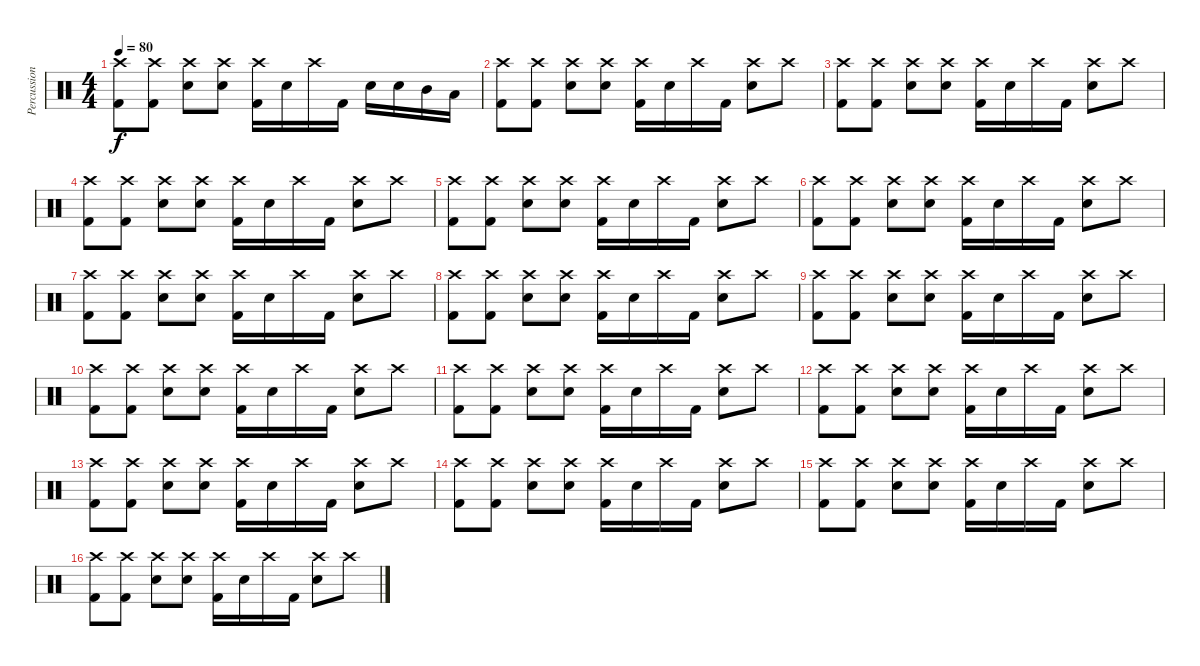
\track ("Percussion" "Percussion") {instrument percussion}
\staff {score}
\articulation defaults
\ts (4 4)
\tempo 80
\clef neutral
\ks c
("Kick (hit) 2" "Crash high (hit)").8{dy f} ("Kick (hit) 2" "Crash high (hit)").8 ("Electric Snare (hit)" "Crash high (hit)").8 ("Electric Snare (hit)" "Crash high (hit)").8 ("Kick (hit) 2" "Crash high (hit)").16 "Electric Snare (hit)".16 "Crash high (hit)".16 "Kick (hit) 2".16 "Electric Snare (hit)".16 "Electric Snare (hit)".16 "Mid Tom (hit)".16 "Low Tom (hit)".16 |
("Kick (hit) 2" "Crash high (hit)").8 ("Kick (hit) 2" "Crash high (hit)").8 ("Electric Snare (hit)" "Crash high (hit)").8 ("Electric Snare (hit)" "Crash high (hit)").8 ("Kick (hit) 2" "Crash high (hit)").16 "Electric Snare (hit)".16 "Crash high (hit)".16 "Kick (hit) 2".16 ("Electric Snare (hit)" "Crash high (hit)").8 "Crash high (hit)".8 |
("Kick (hit) 2" "Crash high (hit)").8 ("Kick (hit) 2" "Crash high (hit)").8 ("Electric Snare (hit)" "Crash high (hit)").8 ("Electric Snare (hit)" "Crash high (hit)").8 ("Kick (hit) 2" "Crash high (hit)").16 "Electric Snare (hit)".16 "Crash high (hit)".16 "Kick (hit) 2".16 ("Electric Snare (hit)" "Crash high (hit)").8 "Crash high (hit)".8 |
("Kick (hit) 2" "Crash high (hit)").8 ("Kick (hit) 2" "Crash high (hit)").8 ("Electric Snare (hit)" "Crash high (hit)").8 ("Electric Snare (hit)" "Crash high (hit)").8 ("Kick (hit) 2" "Crash high (hit)").16 "Electric Snare (hit)".16 "Crash high (hit)".16 "Kick (hit) 2".16 ("Electric Snare (hit)" "Crash high (hit)").8 "Crash high (hit)".8 |
("Kick (hit) 2" "Crash high (hit)").8 ("Kick (hit) 2" "Crash high (hit)").8 ("Electric Snare (hit)" "Crash high (hit)").8 ("Electric Snare (hit)" "Crash high (hit)").8 ("Kick (hit) 2" "Crash high (hit)").16 "Electric Snare (hit)".16 "Crash high (hit)".16 "Kick (hit) 2".16 ("Electric Snare (hit)" "Crash high (hit)").8 "Crash high (hit)".8 |
("Kick (hit) 2" "Crash high (hit)").8 ("Kick (hit) 2" "Crash high (hit)").8 ("Electric Snare (hit)" "Crash high (hit)").8 ("Electric Snare (hit)" "Crash high (hit)").8 ("Kick (hit) 2" "Crash high (hit)").16 "Electric Snare (hit)".16 "Crash high (hit)".16 "Kick (hit) 2".16 ("Electric Snare (hit)" "Crash high (hit)").8 "Crash high (hit)".8 |
("Kick (hit) 2" "Crash high (hit)").8 ("Kick (hit) 2" "Crash high (hit)").8 ("Electric Snare (hit)" "Crash high (hit)").8 ("Electric Snare (hit)" "Crash high (hit)").8 ("Kick (hit) 2" "Crash high (hit)").16 "Electric Snare (hit)".16 "Crash high (hit)".16 "Kick (hit) 2".16 ("Electric Snare (hit)" "Crash high (hit)").8 "Crash high (hit)".8 |
("Kick (hit) 2" "Crash high (hit)").8 ("Kick (hit) 2" "Crash high (hit)").8 ("Electric Snare (hit)" "Crash high (hit)").8 ("Electric Snare (hit)" "Crash high (hit)").8 ("Kick (hit) 2" "Crash high (hit)").16 "Electric Snare (hit)".16 "Crash high (hit)".16 "Kick (hit) 2".16 ("Electric Snare (hit)" "Crash high (hit)").8 "Crash high (hit)".8 |
("Kick (hit) 2" "Crash high (hit)").8 ("Kick (hit) 2" "Crash high (hit)").8 ("Electric Snare (hit)" "Crash high (hit)").8 ("Electric Snare (hit)" "Crash high (hit)").8 ("Kick (hit) 2" "Crash high (hit)").16 "Electric Snare (hit)".16 "Crash high (hit)".16 "Kick (hit) 2".16 ("Electric Snare (hit)" "Crash high (hit)").8 "Crash high (hit)".8 |
("Kick (hit) 2" "Crash high (hit)").8 ("Kick (hit) 2" "Crash high (hit)").8 ("Electric Snare (hit)" "Crash high (hit)").8 ("Electric Snare (hit)" "Crash high (hit)").8 ("Kick (hit) 2" "Crash high (hit)").16 "Electric Snare (hit)".16 "Crash high (hit)".16 "Kick (hit) 2".16 ("Electric Snare (hit)" "Crash high (hit)").8 "Crash high (hit)".8 |
("Kick (hit) 2" "Crash high (hit)").8 ("Kick (hit) 2" "Crash high (hit)").8 ("Electric Snare (hit)" "Crash high (hit)").8 ("Electric Snare (hit)" "Crash high (hit)").8 ("Kick (hit) 2" "Crash high (hit)").16 "Electric Snare (hit)".16 "Crash high (hit)".16 "Kick (hit) 2".16 ("Electric Snare (hit)" "Crash high (hit)").8 "Crash high (hit)".8 |
("Kick (hit) 2" "Crash high (hit)").8 ("Kick (hit) 2" "Crash high (hit)").8 ("Electric Snare (hit)" "Crash high (hit)").8 ("Electric Snare (hit)" "Crash high (hit)").8 ("Kick (hit) 2" "Crash high (hit)").16 "Electric Snare (hit)".16 "Crash high (hit)".16 "Kick (hit) 2".16 ("Electric Snare (hit)" "Crash high (hit)").8 "Crash high (hit)".8 |
("Kick (hit) 2" "Crash high (hit)").8 ("Kick (hit) 2" "Crash high (hit)").8 ("Electric Snare (hit)" "Crash high (hit)").8 ("Electric Snare (hit)" "Crash high (hit)").8 ("Kick (hit) 2" "Crash high (hit)").16 "Electric Snare (hit)".16 "Crash high (hit)".16 "Kick (hit) 2".16 ("Electric Snare (hit)" "Crash high (hit)").8 "Crash high (hit)".8 |
("Kick (hit) 2" "Crash high (hit)").8 ("Kick (hit) 2" "Crash high (hit)").8 ("Electric Snare (hit)" "Crash high (hit)").8 ("Electric Snare (hit)" "Crash high (hit)").8 ("Kick (hit) 2" "Crash high (hit)").16 "Electric Snare (hit)".16 "Crash high (hit)".16 "Kick (hit) 2".16 ("Electric Snare (hit)" "Crash high (hit)").8 "Crash high (hit)".8 |
("Kick (hit) 2" "Crash high (hit)").8 ("Kick (hit) 2" "Crash high (hit)").8 ("Electric Snare (hit)" "Crash high (hit)").8 ("Electric Snare (hit)" "Crash high (hit)").8 ("Kick (hit) 2" "Crash high (hit)").16 "Electric Snare (hit)".16 "Crash high (hit)".16 "Kick (hit) 2".16 ("Electric Snare (hit)" "Crash high (hit)").8 "Crash high (hit)".8 |
("Kick (hit) 2" "Crash high (hit)").8 ("Kick (hit) 2" "Crash high (hit)").8 ("Electric Snare (hit)" "Crash high (hit)").8 ("Electric Snare (hit)" "Crash high (hit)").8 ("Kick (hit) 2" "Crash high (hit)").16 "Electric Snare (hit)".16 "Crash high (hit)".16 "Kick (hit) 2".16 ("Electric Snare (hit)" "Crash high (hit)").8 "Crash high (hit)".8
